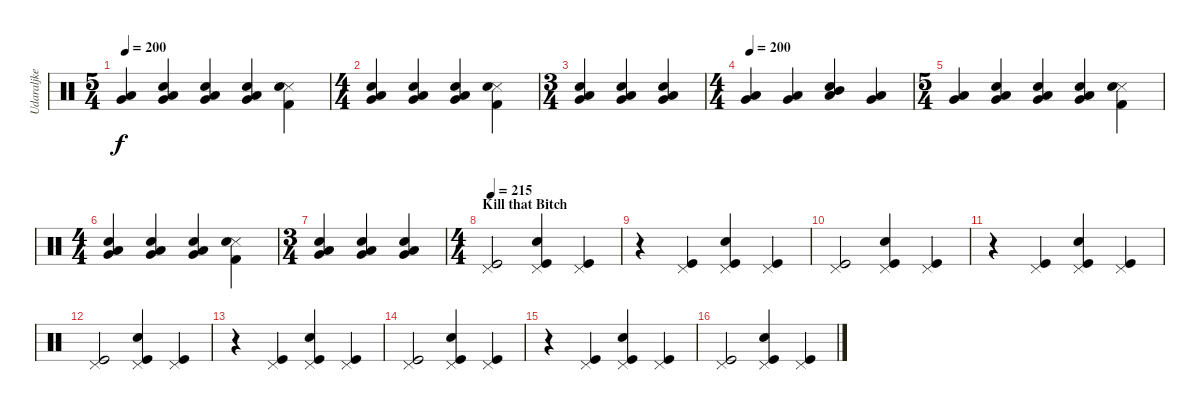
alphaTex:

\track ("Udaraljke" "Udaraljke") {instrument percussion}
\staff {score}
\articulation defaults
\ts (5 4)
\tempo 200
\clef neutral
\ks c
("Very Low Tom (hit)" "Low Tom (hit)").4{dy f} ("Very Low Tom (hit)" "Low Floor Tom (hit)" "Snare (hit) 2").4 ("Very Low Tom (hit)" "Low Floor Tom (hit)" "Snare (hit) 2").4 ("Very Low Tom (hit)" "Low Floor Tom (hit)" "Snare (hit) 2").4 ("Kick (hit) 2" "Metronome (hit)" "Snare (hit) 2").4 |
\ts (4 4)
("Very Low Tom (hit)" "Low Floor Tom (hit)" "Snare (hit) 2").4 ("Very Low Tom (hit)" "Low Floor Tom (hit)" "Snare (hit) 2").4 ("Very Low Tom (hit)" "Low Floor Tom (hit)" "Snare (hit) 2").4 ("Kick (hit) 2" "Metronome (hit)" "Snare (hit) 2").4 |
\ts (3 4)
("Very Low Tom (hit)" "Low Floor Tom (hit)" "Snare (hit) 2").4 ("Very Low Tom (hit)" "Low Floor Tom (hit)" "Snare (hit) 2").4 ("Very Low Tom (hit)" "Low Floor Tom (hit)" "Snare (hit) 2").4 |
\ts (4 4)
\tempo 200
("Very Low Tom (hit)" "Low Tom (hit)").4{volume 10 balance 8} ("Very Low Tom (hit)" "Low Tom (hit)").4 ("Mid Tom (hit)" "Low Tom (hit)" "Snare (hit) 2").4 ("Very Low Tom (hit)" "Low Tom (hit)").4 |
\ts (5 4)
("Very Low Tom (hit)" "Low Tom (hit)").4 ("Very Low Tom (hit)" "Low Floor Tom (hit)" "Snare (hit) 2").4 ("Very Low Tom (hit)" "Low Floor Tom (hit)" "Snare (hit) 2").4 ("Very Low Tom (hit)" "Low Floor Tom (hit)" "Snare (hit) 2").4 ("Kick (hit) 2" "Metronome (hit)" "Snare (hit) 2").4 |
\ts (4 4)
("Very Low Tom (hit)" "Low Floor Tom (hit)" "Snare (hit) 2").4 ("Very Low Tom (hit)" "Low Floor Tom (hit)" "Snare (hit) 2").4 ("Very Low Tom (hit)" "Low Floor Tom (hit)" "Snare (hit) 2").4 ("Kick (hit) 2" "Metronome (hit)" "Snare (hit) 2").4 |
\ts (3 4)
("Very Low Tom (hit)" "Low Floor Tom (hit)" "Snare (hit) 2").4 ("Very Low Tom (hit)" "Low Floor Tom (hit)" "Snare (hit) 2").4 ("Very Low Tom (hit)" "Low Floor Tom (hit)" "Snare (hit) 2").4 |
\ts (4 4)
\section ("" "Kill that Bitch")
\tempo 215
("Kick (hit)" "Pedal Hi-Hat (hit)").2 ("Kick (hit)" "Snare (hit) 2" "Pedal Hi-Hat (hit)").4 ("Kick (hit)" "Pedal Hi-Hat (hit)").4 |
r.4 ("Kick (hit)" "Pedal Hi-Hat (hit)").4 ("Kick (hit)" "Snare (hit) 2" "Pedal Hi-Hat (hit)").4 ("Kick (hit)" "Pedal Hi-Hat (hit)").4 |
("Kick (hit)" "Pedal Hi-Hat (hit)").2 ("Kick (hit)" "Snare (hit) 2" "Pedal Hi-Hat (hit)").4 ("Kick (hit)" "Pedal Hi-Hat (hit)").4 |
r.4 ("Kick (hit)" "Pedal Hi-Hat (hit)").4 ("Kick (hit)" "Snare (hit) 2" "Pedal Hi-Hat (hit)").4 ("Kick (hit)" "Pedal Hi-Hat (hit)").4 |
("Kick (hit)" "Pedal Hi-Hat (hit)").2 ("Kick (hit)" "Snare (hit) 2" "Pedal Hi-Hat (hit)").4 ("Kick (hit)" "Pedal Hi-Hat (hit)").4 |
r.4 ("Kick (hit)" "Pedal Hi-Hat (hit)").4 ("Kick (hit)" "Snare (hit) 2" "Pedal Hi-Hat (hit)").4 ("Kick (hit)" "Pedal Hi-Hat (hit)").4 |
("Kick (hit)" "Pedal Hi-Hat (hit)").2 ("Kick (hit)" "Snare (hit) 2" "Pedal Hi-Hat (hit)").4 ("Kick (hit)" "Pedal Hi-Hat (hit)").4 |
r.4 ("Kick (hit)" "Pedal Hi-Hat (hit)").4 ("Kick (hit)" "Snare (hit) 2" "Pedal Hi-Hat (hit)").4 ("Kick (hit)" "Pedal Hi-Hat (hit)").4 |
("Kick (hit)" "Pedal Hi-Hat (hit)").2 ("Kick (hit)" "Snare (hit) 2" "Pedal Hi-Hat (hit)").4 ("Kick (hit)" "Pedal Hi-Hat (hit)").4
